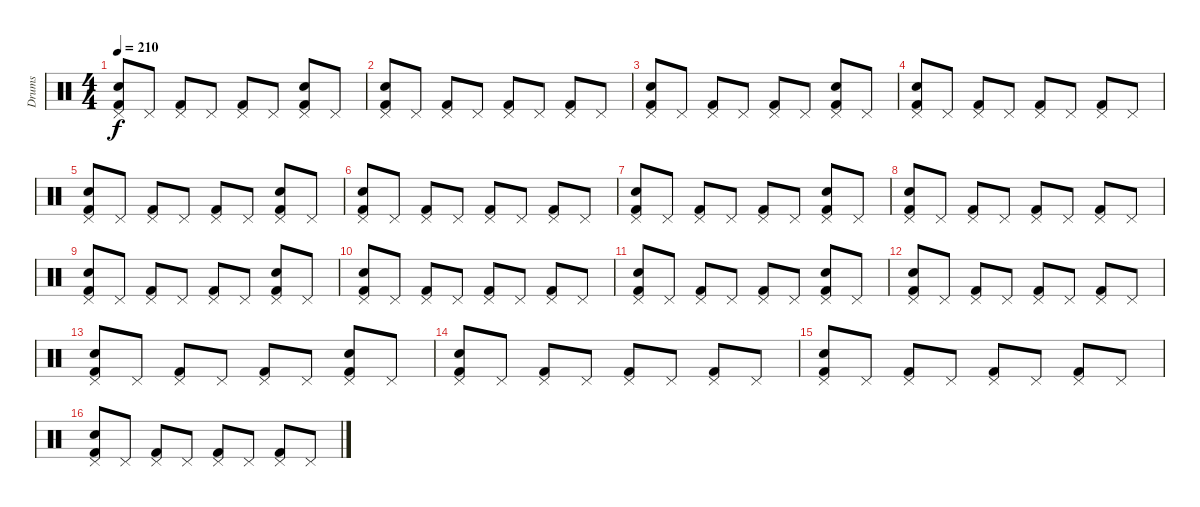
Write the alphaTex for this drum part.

\track ("Drums" "Drums") {instrument percussion}
\staff {score}
\articulation defaults
\ts (4 4)
\tempo 210
\clef neutral
\ks c
("Kick (hit) 2" "Pedal Hi-Hat (hit)" "Snare (hit) 2").8{dy f} "Pedal Hi-Hat (hit)".8 ("Kick (hit) 2" "Pedal Hi-Hat (hit)").8 "Pedal Hi-Hat (hit)".8 ("Kick (hit) 2" "Pedal Hi-Hat (hit)").8 "Pedal Hi-Hat (hit)".8 ("Kick (hit) 2" "Pedal Hi-Hat (hit)" "Snare (hit) 2").8 "Pedal Hi-Hat (hit)".8 |
("Kick (hit) 2" "Pedal Hi-Hat (hit)" "Snare (hit) 2").8 "Pedal Hi-Hat (hit)".8 ("Kick (hit) 2" "Pedal Hi-Hat (hit)").8 "Pedal Hi-Hat (hit)".8 ("Kick (hit) 2" "Pedal Hi-Hat (hit)").8 "Pedal Hi-Hat (hit)".8 ("Kick (hit) 2" "Pedal Hi-Hat (hit)").8 "Pedal Hi-Hat (hit)".8 |
("Kick (hit) 2" "Pedal Hi-Hat (hit)" "Snare (hit) 2").8 "Pedal Hi-Hat (hit)".8 ("Kick (hit) 2" "Pedal Hi-Hat (hit)").8 "Pedal Hi-Hat (hit)".8 ("Kick (hit) 2" "Pedal Hi-Hat (hit)").8 "Pedal Hi-Hat (hit)".8 ("Kick (hit) 2" "Pedal Hi-Hat (hit)" "Snare (hit) 2").8 "Pedal Hi-Hat (hit)".8 |
("Kick (hit) 2" "Pedal Hi-Hat (hit)" "Snare (hit) 2").8 "Pedal Hi-Hat (hit)".8 ("Kick (hit) 2" "Pedal Hi-Hat (hit)").8 "Pedal Hi-Hat (hit)".8 ("Kick (hit) 2" "Pedal Hi-Hat (hit)").8 "Pedal Hi-Hat (hit)".8 ("Kick (hit) 2" "Pedal Hi-Hat (hit)").8 "Pedal Hi-Hat (hit)".8 |
("Kick (hit) 2" "Pedal Hi-Hat (hit)" "Snare (hit) 2").8 "Pedal Hi-Hat (hit)".8 ("Kick (hit) 2" "Pedal Hi-Hat (hit)").8 "Pedal Hi-Hat (hit)".8 ("Kick (hit) 2" "Pedal Hi-Hat (hit)").8 "Pedal Hi-Hat (hit)".8 ("Kick (hit) 2" "Pedal Hi-Hat (hit)" "Snare (hit) 2").8 "Pedal Hi-Hat (hit)".8 |
("Kick (hit) 2" "Pedal Hi-Hat (hit)" "Snare (hit) 2").8 "Pedal Hi-Hat (hit)".8 ("Kick (hit) 2" "Pedal Hi-Hat (hit)").8 "Pedal Hi-Hat (hit)".8 ("Kick (hit) 2" "Pedal Hi-Hat (hit)").8 "Pedal Hi-Hat (hit)".8 ("Kick (hit) 2" "Pedal Hi-Hat (hit)").8 "Pedal Hi-Hat (hit)".8 |
("Kick (hit) 2" "Pedal Hi-Hat (hit)" "Snare (hit) 2").8 "Pedal Hi-Hat (hit)".8 ("Kick (hit) 2" "Pedal Hi-Hat (hit)").8 "Pedal Hi-Hat (hit)".8 ("Kick (hit) 2" "Pedal Hi-Hat (hit)").8 "Pedal Hi-Hat (hit)".8 ("Kick (hit) 2" "Pedal Hi-Hat (hit)" "Snare (hit) 2").8 "Pedal Hi-Hat (hit)".8 |
("Kick (hit) 2" "Pedal Hi-Hat (hit)" "Snare (hit) 2").8 "Pedal Hi-Hat (hit)".8 ("Kick (hit) 2" "Pedal Hi-Hat (hit)").8 "Pedal Hi-Hat (hit)".8 ("Kick (hit) 2" "Pedal Hi-Hat (hit)").8 "Pedal Hi-Hat (hit)".8 ("Kick (hit) 2" "Pedal Hi-Hat (hit)").8 "Pedal Hi-Hat (hit)".8 |
("Kick (hit) 2" "Pedal Hi-Hat (hit)" "Snare (hit) 2").8 "Pedal Hi-Hat (hit)".8 ("Kick (hit) 2" "Pedal Hi-Hat (hit)").8 "Pedal Hi-Hat (hit)".8 ("Kick (hit) 2" "Pedal Hi-Hat (hit)").8 "Pedal Hi-Hat (hit)".8 ("Kick (hit) 2" "Pedal Hi-Hat (hit)" "Snare (hit) 2").8 "Pedal Hi-Hat (hit)".8 |
("Kick (hit) 2" "Pedal Hi-Hat (hit)" "Snare (hit) 2").8 "Pedal Hi-Hat (hit)".8 ("Kick (hit) 2" "Pedal Hi-Hat (hit)").8 "Pedal Hi-Hat (hit)".8 ("Kick (hit) 2" "Pedal Hi-Hat (hit)").8 "Pedal Hi-Hat (hit)".8 ("Kick (hit) 2" "Pedal Hi-Hat (hit)").8 "Pedal Hi-Hat (hit)".8 |
("Kick (hit) 2" "Pedal Hi-Hat (hit)" "Snare (hit) 2").8 "Pedal Hi-Hat (hit)".8 ("Kick (hit) 2" "Pedal Hi-Hat (hit)").8 "Pedal Hi-Hat (hit)".8 ("Kick (hit) 2" "Pedal Hi-Hat (hit)").8 "Pedal Hi-Hat (hit)".8 ("Kick (hit) 2" "Pedal Hi-Hat (hit)" "Snare (hit) 2").8 "Pedal Hi-Hat (hit)".8 |
("Kick (hit) 2" "Pedal Hi-Hat (hit)" "Snare (hit) 2").8 "Pedal Hi-Hat (hit)".8 ("Kick (hit) 2" "Pedal Hi-Hat (hit)").8 "Pedal Hi-Hat (hit)".8 ("Kick (hit) 2" "Pedal Hi-Hat (hit)").8 "Pedal Hi-Hat (hit)".8 ("Kick (hit) 2" "Pedal Hi-Hat (hit)").8 "Pedal Hi-Hat (hit)".8 |
("Kick (hit) 2" "Pedal Hi-Hat (hit)" "Snare (hit) 2").8 "Pedal Hi-Hat (hit)".8 ("Kick (hit) 2" "Pedal Hi-Hat (hit)").8 "Pedal Hi-Hat (hit)".8 ("Kick (hit) 2" "Pedal Hi-Hat (hit)").8 "Pedal Hi-Hat (hit)".8 ("Kick (hit) 2" "Pedal Hi-Hat (hit)" "Snare (hit) 2").8 "Pedal Hi-Hat (hit)".8 |
("Kick (hit) 2" "Pedal Hi-Hat (hit)" "Snare (hit) 2").8 "Pedal Hi-Hat (hit)".8 ("Kick (hit) 2" "Pedal Hi-Hat (hit)").8 "Pedal Hi-Hat (hit)".8 ("Kick (hit) 2" "Pedal Hi-Hat (hit)").8 "Pedal Hi-Hat (hit)".8 ("Kick (hit) 2" "Pedal Hi-Hat (hit)").8 "Pedal Hi-Hat (hit)".8 |
("Kick (hit) 2" "Pedal Hi-Hat (hit)" "Snare (hit) 2").8 "Pedal Hi-Hat (hit)".8 ("Kick (hit) 2" "Pedal Hi-Hat (hit)").8 "Pedal Hi-Hat (hit)".8 ("Kick (hit) 2" "Pedal Hi-Hat (hit)").8 "Pedal Hi-Hat (hit)".8 ("Kick (hit) 2" "Pedal Hi-Hat (hit)").8 "Pedal Hi-Hat (hit)".8 |
("Kick (hit) 2" "Pedal Hi-Hat (hit)" "Snare (hit) 2").8 "Pedal Hi-Hat (hit)".8 ("Kick (hit) 2" "Pedal Hi-Hat (hit)").8 "Pedal Hi-Hat (hit)".8 ("Kick (hit) 2" "Pedal Hi-Hat (hit)").8 "Pedal Hi-Hat (hit)".8 ("Kick (hit) 2" "Pedal Hi-Hat (hit)").8 "Pedal Hi-Hat (hit)".8
